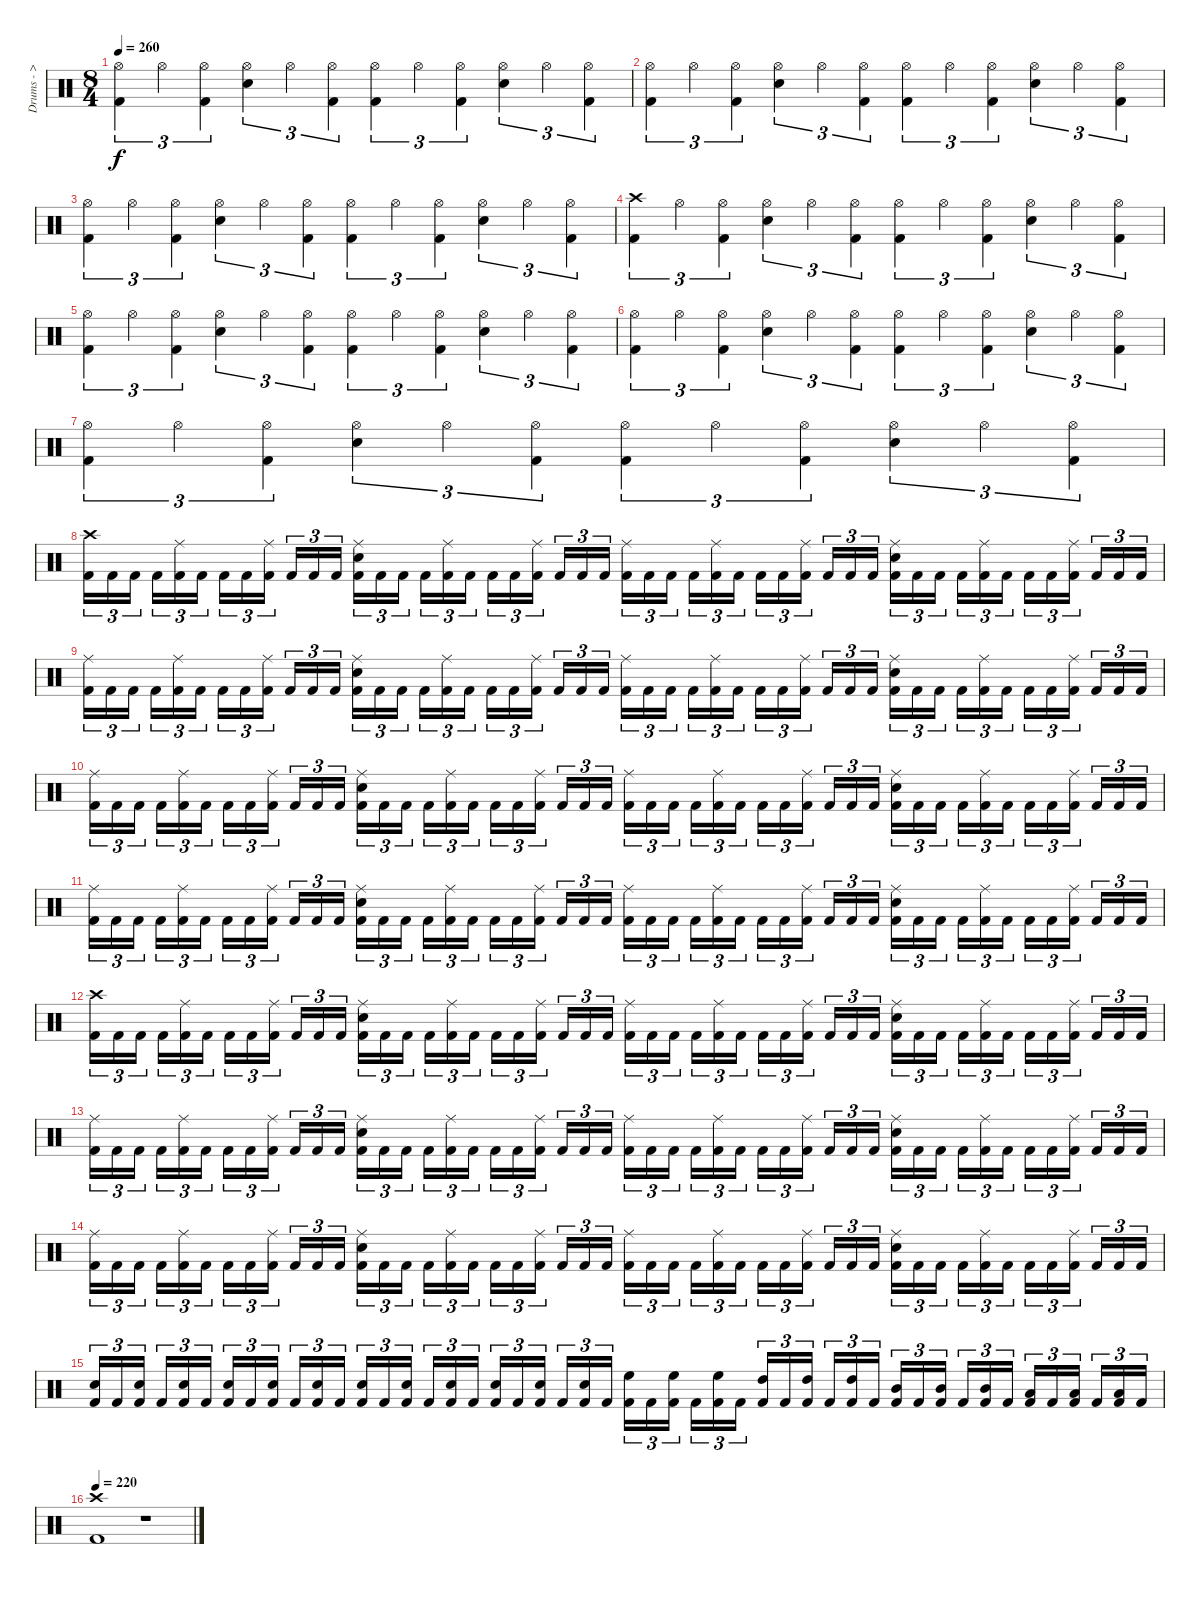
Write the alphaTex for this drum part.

\track ("Drums - > Nicholas" "Drums - > ") {instrument percussion}
\staff {score}
\articulation defaults
\ts (8 4)
\tempo 260
\clef neutral
\ks c
("Kick (hit) 2" "Hi-Hat (open)").4{tu (3 2) dy f} "Hi-Hat (open)".4{tu (3 2)} ("Kick (hit) 2" "Hi-Hat (open)").4{tu (3 2)} ("Snare (hit) 2" "Hi-Hat (open)").4{tu (3 2)} "Hi-Hat (open)".4{tu (3 2)} ("Kick (hit) 2" "Hi-Hat (open)").4{tu (3 2)} ("Kick (hit) 2" "Hi-Hat (open)").4{tu (3 2)} "Hi-Hat (open)".4{tu (3 2)} ("Kick (hit) 2" "Hi-Hat (open)").4{tu (3 2)} ("Snare (hit) 2" "Hi-Hat (open)").4{tu (3 2)} "Hi-Hat (open)".4{tu (3 2)} ("Kick (hit) 2" "Hi-Hat (open)").4{tu (3 2)} |
("Kick (hit) 2" "Hi-Hat (open)").4{tu (3 2)} "Hi-Hat (open)".4{tu (3 2)} ("Kick (hit) 2" "Hi-Hat (open)").4{tu (3 2)} ("Snare (hit) 2" "Hi-Hat (open)").4{tu (3 2)} "Hi-Hat (open)".4{tu (3 2)} ("Kick (hit) 2" "Hi-Hat (open)").4{tu (3 2)} ("Kick (hit) 2" "Hi-Hat (open)").4{tu (3 2)} "Hi-Hat (open)".4{tu (3 2)} ("Kick (hit) 2" "Hi-Hat (open)").4{tu (3 2)} ("Snare (hit) 2" "Hi-Hat (open)").4{tu (3 2)} "Hi-Hat (open)".4{tu (3 2)} ("Kick (hit) 2" "Hi-Hat (open)").4{tu (3 2)} |
("Kick (hit) 2" "Hi-Hat (open)").4{tu (3 2)} "Hi-Hat (open)".4{tu (3 2)} ("Kick (hit) 2" "Hi-Hat (open)").4{tu (3 2)} ("Snare (hit) 2" "Hi-Hat (open)").4{tu (3 2)} "Hi-Hat (open)".4{tu (3 2)} ("Kick (hit) 2" "Hi-Hat (open)").4{tu (3 2)} ("Kick (hit) 2" "Hi-Hat (open)").4{tu (3 2)} "Hi-Hat (open)".4{tu (3 2)} ("Kick (hit) 2" "Hi-Hat (open)").4{tu (3 2)} ("Snare (hit) 2" "Hi-Hat (open)").4{tu (3 2)} "Hi-Hat (open)".4{tu (3 2)} ("Kick (hit) 2" "Hi-Hat (open)").4{tu (3 2)} |
("Kick (hit) 2" "Crash high (hit)").4{tu (3 2)} "Hi-Hat (open)".4{tu (3 2)} ("Kick (hit) 2" "Hi-Hat (open)").4{tu (3 2)} ("Snare (hit) 2" "Hi-Hat (open)").4{tu (3 2)} "Hi-Hat (open)".4{tu (3 2)} ("Kick (hit) 2" "Hi-Hat (open)").4{tu (3 2)} ("Kick (hit) 2" "Hi-Hat (open)").4{tu (3 2)} "Hi-Hat (open)".4{tu (3 2)} ("Kick (hit) 2" "Hi-Hat (open)").4{tu (3 2)} ("Snare (hit) 2" "Hi-Hat (open)").4{tu (3 2)} "Hi-Hat (open)".4{tu (3 2)} ("Kick (hit) 2" "Hi-Hat (open)").4{tu (3 2)} |
("Kick (hit) 2" "Hi-Hat (open)").4{tu (3 2)} "Hi-Hat (open)".4{tu (3 2)} ("Kick (hit) 2" "Hi-Hat (open)").4{tu (3 2)} ("Snare (hit) 2" "Hi-Hat (open)").4{tu (3 2)} "Hi-Hat (open)".4{tu (3 2)} ("Kick (hit) 2" "Hi-Hat (open)").4{tu (3 2)} ("Kick (hit) 2" "Hi-Hat (open)").4{tu (3 2)} "Hi-Hat (open)".4{tu (3 2)} ("Kick (hit) 2" "Hi-Hat (open)").4{tu (3 2)} ("Snare (hit) 2" "Hi-Hat (open)").4{tu (3 2)} "Hi-Hat (open)".4{tu (3 2)} ("Kick (hit) 2" "Hi-Hat (open)").4{tu (3 2)} |
("Kick (hit) 2" "Hi-Hat (open)").4{tu (3 2)} "Hi-Hat (open)".4{tu (3 2)} ("Kick (hit) 2" "Hi-Hat (open)").4{tu (3 2)} ("Snare (hit) 2" "Hi-Hat (open)").4{tu (3 2)} "Hi-Hat (open)".4{tu (3 2)} ("Kick (hit) 2" "Hi-Hat (open)").4{tu (3 2)} ("Kick (hit) 2" "Hi-Hat (open)").4{tu (3 2)} "Hi-Hat (open)".4{tu (3 2)} ("Kick (hit) 2" "Hi-Hat (open)").4{tu (3 2)} ("Snare (hit) 2" "Hi-Hat (open)").4{tu (3 2)} "Hi-Hat (open)".4{tu (3 2)} ("Kick (hit) 2" "Hi-Hat (open)").4{tu (3 2)} |
("Kick (hit) 2" "Hi-Hat (open)").4{tu (3 2)} "Hi-Hat (open)".4{tu (3 2)} ("Kick (hit) 2" "Hi-Hat (open)").4{tu (3 2)} ("Snare (hit) 2" "Hi-Hat (open)").4{tu (3 2)} "Hi-Hat (open)".4{tu (3 2)} ("Kick (hit) 2" "Hi-Hat (open)").4{tu (3 2)} ("Kick (hit) 2" "Hi-Hat (open)").4{tu (3 2)} "Hi-Hat (open)".4{tu (3 2)} ("Kick (hit) 2" "Hi-Hat (open)").4{tu (3 2)} ("Snare (hit) 2" "Hi-Hat (open)").4{tu (3 2)} "Hi-Hat (open)".4{tu (3 2)} ("Kick (hit) 2" "Hi-Hat (open)").4{tu (3 2)} |
("Kick (hit) 2" "Crash high (hit)").16{tu (3 2)} "Kick (hit) 2".16{tu (3 2)} "Kick (hit) 2".16{tu (3 2)} "Kick (hit) 2".16{tu (3 2)} ("Kick (hit) 2" "Ride (middle)").16{tu (3 2)} "Kick (hit) 2".16{tu (3 2)} "Kick (hit) 2".16{tu (3 2)} "Kick (hit) 2".16{tu (3 2)} ("Kick (hit) 2" "Ride (middle)").16{tu (3 2)} "Kick (hit) 2".16{tu (3 2)} "Kick (hit) 2".16{tu (3 2)} "Kick (hit) 2".16{tu (3 2)} ("Kick (hit) 2" "Snare (hit) 2" "Ride (middle)").16{tu (3 2)} "Kick (hit) 2".16{tu (3 2)} "Kick (hit) 2".16{tu (3 2)} "Kick (hit) 2".16{tu (3 2)} ("Kick (hit) 2" "Ride (middle)").16{tu (3 2)} "Kick (hit) 2".16{tu (3 2)} "Kick (hit) 2".16{tu (3 2)} "Kick (hit) 2".16{tu (3 2)} ("Kick (hit) 2" "Ride (middle)").16{tu (3 2)} "Kick (hit) 2".16{tu (3 2)} "Kick (hit) 2".16{tu (3 2)} "Kick (hit) 2".16{tu (3 2)} ("Kick (hit) 2" "Ride (middle)").16{tu (3 2)} "Kick (hit) 2".16{tu (3 2)} "Kick (hit) 2".16{tu (3 2)} "Kick (hit) 2".16{tu (3 2)} ("Kick (hit) 2" "Ride (middle)").16{tu (3 2)} "Kick (hit) 2".16{tu (3 2)} "Kick (hit) 2".16{tu (3 2)} "Kick (hit) 2".16{tu (3 2)} ("Kick (hit) 2" "Ride (middle)").16{tu (3 2)} "Kick (hit) 2".16{tu (3 2)} "Kick (hit) 2".16{tu (3 2)} "Kick (hit) 2".16{tu (3 2)} ("Kick (hit) 2" "Snare (hit) 2" "Ride (middle)").16{tu (3 2)} "Kick (hit) 2".16{tu (3 2)} "Kick (hit) 2".16{tu (3 2)} "Kick (hit) 2".16{tu (3 2)} ("Kick (hit) 2" "Ride (middle)").16{tu (3 2)} "Kick (hit) 2".16{tu (3 2)} "Kick (hit) 2".16{tu (3 2)} "Kick (hit) 2".16{tu (3 2)} ("Kick (hit) 2" "Ride (middle)").16{tu (3 2)} "Kick (hit) 2".16{tu (3 2)} "Kick (hit) 2".16{tu (3 2)} "Kick (hit) 2".16{tu (3 2)} |
("Kick (hit) 2" "Ride (middle)").16{tu (3 2)} "Kick (hit) 2".16{tu (3 2)} "Kick (hit) 2".16{tu (3 2)} "Kick (hit) 2".16{tu (3 2)} ("Kick (hit) 2" "Ride (middle)").16{tu (3 2)} "Kick (hit) 2".16{tu (3 2)} "Kick (hit) 2".16{tu (3 2)} "Kick (hit) 2".16{tu (3 2)} ("Kick (hit) 2" "Ride (middle)").16{tu (3 2)} "Kick (hit) 2".16{tu (3 2)} "Kick (hit) 2".16{tu (3 2)} "Kick (hit) 2".16{tu (3 2)} ("Kick (hit) 2" "Snare (hit) 2" "Ride (middle)").16{tu (3 2)} "Kick (hit) 2".16{tu (3 2)} "Kick (hit) 2".16{tu (3 2)} "Kick (hit) 2".16{tu (3 2)} ("Kick (hit) 2" "Ride (middle)").16{tu (3 2)} "Kick (hit) 2".16{tu (3 2)} "Kick (hit) 2".16{tu (3 2)} "Kick (hit) 2".16{tu (3 2)} ("Kick (hit) 2" "Ride (middle)").16{tu (3 2)} "Kick (hit) 2".16{tu (3 2)} "Kick (hit) 2".16{tu (3 2)} "Kick (hit) 2".16{tu (3 2)} ("Kick (hit) 2" "Ride (middle)").16{tu (3 2)} "Kick (hit) 2".16{tu (3 2)} "Kick (hit) 2".16{tu (3 2)} "Kick (hit) 2".16{tu (3 2)} ("Kick (hit) 2" "Ride (middle)").16{tu (3 2)} "Kick (hit) 2".16{tu (3 2)} "Kick (hit) 2".16{tu (3 2)} "Kick (hit) 2".16{tu (3 2)} ("Kick (hit) 2" "Ride (middle)").16{tu (3 2)} "Kick (hit) 2".16{tu (3 2)} "Kick (hit) 2".16{tu (3 2)} "Kick (hit) 2".16{tu (3 2)} ("Kick (hit) 2" "Snare (hit) 2" "Ride (middle)").16{tu (3 2)} "Kick (hit) 2".16{tu (3 2)} "Kick (hit) 2".16{tu (3 2)} "Kick (hit) 2".16{tu (3 2)} ("Kick (hit) 2" "Ride (middle)").16{tu (3 2)} "Kick (hit) 2".16{tu (3 2)} "Kick (hit) 2".16{tu (3 2)} "Kick (hit) 2".16{tu (3 2)} ("Kick (hit) 2" "Ride (middle)").16{tu (3 2)} "Kick (hit) 2".16{tu (3 2)} "Kick (hit) 2".16{tu (3 2)} "Kick (hit) 2".16{tu (3 2)} |
("Kick (hit) 2" "Ride (middle)").16{tu (3 2)} "Kick (hit) 2".16{tu (3 2)} "Kick (hit) 2".16{tu (3 2)} "Kick (hit) 2".16{tu (3 2)} ("Kick (hit) 2" "Ride (middle)").16{tu (3 2)} "Kick (hit) 2".16{tu (3 2)} "Kick (hit) 2".16{tu (3 2)} "Kick (hit) 2".16{tu (3 2)} ("Kick (hit) 2" "Ride (middle)").16{tu (3 2)} "Kick (hit) 2".16{tu (3 2)} "Kick (hit) 2".16{tu (3 2)} "Kick (hit) 2".16{tu (3 2)} ("Kick (hit) 2" "Snare (hit) 2" "Ride (middle)").16{tu (3 2)} "Kick (hit) 2".16{tu (3 2)} "Kick (hit) 2".16{tu (3 2)} "Kick (hit) 2".16{tu (3 2)} ("Kick (hit) 2" "Ride (middle)").16{tu (3 2)} "Kick (hit) 2".16{tu (3 2)} "Kick (hit) 2".16{tu (3 2)} "Kick (hit) 2".16{tu (3 2)} ("Kick (hit) 2" "Ride (middle)").16{tu (3 2)} "Kick (hit) 2".16{tu (3 2)} "Kick (hit) 2".16{tu (3 2)} "Kick (hit) 2".16{tu (3 2)} ("Kick (hit) 2" "Ride (middle)").16{tu (3 2)} "Kick (hit) 2".16{tu (3 2)} "Kick (hit) 2".16{tu (3 2)} "Kick (hit) 2".16{tu (3 2)} ("Kick (hit) 2" "Ride (middle)").16{tu (3 2)} "Kick (hit) 2".16{tu (3 2)} "Kick (hit) 2".16{tu (3 2)} "Kick (hit) 2".16{tu (3 2)} ("Kick (hit) 2" "Ride (middle)").16{tu (3 2)} "Kick (hit) 2".16{tu (3 2)} "Kick (hit) 2".16{tu (3 2)} "Kick (hit) 2".16{tu (3 2)} ("Kick (hit) 2" "Snare (hit) 2" "Ride (middle)").16{tu (3 2)} "Kick (hit) 2".16{tu (3 2)} "Kick (hit) 2".16{tu (3 2)} "Kick (hit) 2".16{tu (3 2)} ("Kick (hit) 2" "Ride (middle)").16{tu (3 2)} "Kick (hit) 2".16{tu (3 2)} "Kick (hit) 2".16{tu (3 2)} "Kick (hit) 2".16{tu (3 2)} ("Kick (hit) 2" "Ride (middle)").16{tu (3 2)} "Kick (hit) 2".16{tu (3 2)} "Kick (hit) 2".16{tu (3 2)} "Kick (hit) 2".16{tu (3 2)} |
("Kick (hit) 2" "Ride (middle)").16{tu (3 2)} "Kick (hit) 2".16{tu (3 2)} "Kick (hit) 2".16{tu (3 2)} "Kick (hit) 2".16{tu (3 2)} ("Kick (hit) 2" "Ride (middle)").16{tu (3 2)} "Kick (hit) 2".16{tu (3 2)} "Kick (hit) 2".16{tu (3 2)} "Kick (hit) 2".16{tu (3 2)} ("Kick (hit) 2" "Ride (middle)").16{tu (3 2)} "Kick (hit) 2".16{tu (3 2)} "Kick (hit) 2".16{tu (3 2)} "Kick (hit) 2".16{tu (3 2)} ("Kick (hit) 2" "Snare (hit) 2" "Ride (middle)").16{tu (3 2)} "Kick (hit) 2".16{tu (3 2)} "Kick (hit) 2".16{tu (3 2)} "Kick (hit) 2".16{tu (3 2)} ("Kick (hit) 2" "Ride (middle)").16{tu (3 2)} "Kick (hit) 2".16{tu (3 2)} "Kick (hit) 2".16{tu (3 2)} "Kick (hit) 2".16{tu (3 2)} ("Kick (hit) 2" "Ride (middle)").16{tu (3 2)} "Kick (hit) 2".16{tu (3 2)} "Kick (hit) 2".16{tu (3 2)} "Kick (hit) 2".16{tu (3 2)} ("Kick (hit) 2" "Ride (middle)").16{tu (3 2)} "Kick (hit) 2".16{tu (3 2)} "Kick (hit) 2".16{tu (3 2)} "Kick (hit) 2".16{tu (3 2)} ("Kick (hit) 2" "Ride (middle)").16{tu (3 2)} "Kick (hit) 2".16{tu (3 2)} "Kick (hit) 2".16{tu (3 2)} "Kick (hit) 2".16{tu (3 2)} ("Kick (hit) 2" "Ride (middle)").16{tu (3 2)} "Kick (hit) 2".16{tu (3 2)} "Kick (hit) 2".16{tu (3 2)} "Kick (hit) 2".16{tu (3 2)} ("Kick (hit) 2" "Snare (hit) 2" "Ride (middle)").16{tu (3 2)} "Kick (hit) 2".16{tu (3 2)} "Kick (hit) 2".16{tu (3 2)} "Kick (hit) 2".16{tu (3 2)} ("Kick (hit) 2" "Ride (middle)").16{tu (3 2)} "Kick (hit) 2".16{tu (3 2)} "Kick (hit) 2".16{tu (3 2)} "Kick (hit) 2".16{tu (3 2)} ("Kick (hit) 2" "Ride (middle)").16{tu (3 2)} "Kick (hit) 2".16{tu (3 2)} "Kick (hit) 2".16{tu (3 2)} "Kick (hit) 2".16{tu (3 2)} |
("Kick (hit) 2" "Crash high (hit)").16{tu (3 2)} "Kick (hit) 2".16{tu (3 2)} "Kick (hit) 2".16{tu (3 2)} "Kick (hit) 2".16{tu (3 2)} ("Kick (hit) 2" "Ride (middle)").16{tu (3 2)} "Kick (hit) 2".16{tu (3 2)} "Kick (hit) 2".16{tu (3 2)} "Kick (hit) 2".16{tu (3 2)} ("Kick (hit) 2" "Ride (middle)").16{tu (3 2)} "Kick (hit) 2".16{tu (3 2)} "Kick (hit) 2".16{tu (3 2)} "Kick (hit) 2".16{tu (3 2)} ("Kick (hit) 2" "Snare (hit) 2" "Ride (middle)").16{tu (3 2)} "Kick (hit) 2".16{tu (3 2)} "Kick (hit) 2".16{tu (3 2)} "Kick (hit) 2".16{tu (3 2)} ("Kick (hit) 2" "Ride (middle)").16{tu (3 2)} "Kick (hit) 2".16{tu (3 2)} "Kick (hit) 2".16{tu (3 2)} "Kick (hit) 2".16{tu (3 2)} ("Kick (hit) 2" "Ride (middle)").16{tu (3 2)} "Kick (hit) 2".16{tu (3 2)} "Kick (hit) 2".16{tu (3 2)} "Kick (hit) 2".16{tu (3 2)} ("Kick (hit) 2" "Ride (middle)").16{tu (3 2)} "Kick (hit) 2".16{tu (3 2)} "Kick (hit) 2".16{tu (3 2)} "Kick (hit) 2".16{tu (3 2)} ("Kick (hit) 2" "Ride (middle)").16{tu (3 2)} "Kick (hit) 2".16{tu (3 2)} "Kick (hit) 2".16{tu (3 2)} "Kick (hit) 2".16{tu (3 2)} ("Kick (hit) 2" "Ride (middle)").16{tu (3 2)} "Kick (hit) 2".16{tu (3 2)} "Kick (hit) 2".16{tu (3 2)} "Kick (hit) 2".16{tu (3 2)} ("Kick (hit) 2" "Snare (hit) 2" "Ride (middle)").16{tu (3 2)} "Kick (hit) 2".16{tu (3 2)} "Kick (hit) 2".16{tu (3 2)} "Kick (hit) 2".16{tu (3 2)} ("Kick (hit) 2" "Ride (middle)").16{tu (3 2)} "Kick (hit) 2".16{tu (3 2)} "Kick (hit) 2".16{tu (3 2)} "Kick (hit) 2".16{tu (3 2)} ("Kick (hit) 2" "Ride (middle)").16{tu (3 2)} "Kick (hit) 2".16{tu (3 2)} "Kick (hit) 2".16{tu (3 2)} "Kick (hit) 2".16{tu (3 2)} |
("Kick (hit) 2" "Ride (middle)").16{tu (3 2)} "Kick (hit) 2".16{tu (3 2)} "Kick (hit) 2".16{tu (3 2)} "Kick (hit) 2".16{tu (3 2)} ("Kick (hit) 2" "Ride (middle)").16{tu (3 2)} "Kick (hit) 2".16{tu (3 2)} "Kick (hit) 2".16{tu (3 2)} "Kick (hit) 2".16{tu (3 2)} ("Kick (hit) 2" "Ride (middle)").16{tu (3 2)} "Kick (hit) 2".16{tu (3 2)} "Kick (hit) 2".16{tu (3 2)} "Kick (hit) 2".16{tu (3 2)} ("Kick (hit) 2" "Snare (hit) 2" "Ride (middle)").16{tu (3 2)} "Kick (hit) 2".16{tu (3 2)} "Kick (hit) 2".16{tu (3 2)} "Kick (hit) 2".16{tu (3 2)} ("Kick (hit) 2" "Ride (middle)").16{tu (3 2)} "Kick (hit) 2".16{tu (3 2)} "Kick (hit) 2".16{tu (3 2)} "Kick (hit) 2".16{tu (3 2)} ("Kick (hit) 2" "Ride (middle)").16{tu (3 2)} "Kick (hit) 2".16{tu (3 2)} "Kick (hit) 2".16{tu (3 2)} "Kick (hit) 2".16{tu (3 2)} ("Kick (hit) 2" "Ride (middle)").16{tu (3 2)} "Kick (hit) 2".16{tu (3 2)} "Kick (hit) 2".16{tu (3 2)} "Kick (hit) 2".16{tu (3 2)} ("Kick (hit) 2" "Ride (middle)").16{tu (3 2)} "Kick (hit) 2".16{tu (3 2)} "Kick (hit) 2".16{tu (3 2)} "Kick (hit) 2".16{tu (3 2)} ("Kick (hit) 2" "Ride (middle)").16{tu (3 2)} "Kick (hit) 2".16{tu (3 2)} "Kick (hit) 2".16{tu (3 2)} "Kick (hit) 2".16{tu (3 2)} ("Kick (hit) 2" "Snare (hit) 2" "Ride (middle)").16{tu (3 2)} "Kick (hit) 2".16{tu (3 2)} "Kick (hit) 2".16{tu (3 2)} "Kick (hit) 2".16{tu (3 2)} ("Kick (hit) 2" "Ride (middle)").16{tu (3 2)} "Kick (hit) 2".16{tu (3 2)} "Kick (hit) 2".16{tu (3 2)} "Kick (hit) 2".16{tu (3 2)} ("Kick (hit) 2" "Ride (middle)").16{tu (3 2)} "Kick (hit) 2".16{tu (3 2)} "Kick (hit) 2".16{tu (3 2)} "Kick (hit) 2".16{tu (3 2)} |
("Kick (hit) 2" "Ride (middle)").16{tu (3 2)} "Kick (hit) 2".16{tu (3 2)} "Kick (hit) 2".16{tu (3 2)} "Kick (hit) 2".16{tu (3 2)} ("Kick (hit) 2" "Ride (middle)").16{tu (3 2)} "Kick (hit) 2".16{tu (3 2)} "Kick (hit) 2".16{tu (3 2)} "Kick (hit) 2".16{tu (3 2)} ("Kick (hit) 2" "Ride (middle)").16{tu (3 2)} "Kick (hit) 2".16{tu (3 2)} "Kick (hit) 2".16{tu (3 2)} "Kick (hit) 2".16{tu (3 2)} ("Kick (hit) 2" "Snare (hit) 2" "Ride (middle)").16{tu (3 2)} "Kick (hit) 2".16{tu (3 2)} "Kick (hit) 2".16{tu (3 2)} "Kick (hit) 2".16{tu (3 2)} ("Kick (hit) 2" "Ride (middle)").16{tu (3 2)} "Kick (hit) 2".16{tu (3 2)} "Kick (hit) 2".16{tu (3 2)} "Kick (hit) 2".16{tu (3 2)} ("Kick (hit) 2" "Ride (middle)").16{tu (3 2)} "Kick (hit) 2".16{tu (3 2)} "Kick (hit) 2".16{tu (3 2)} "Kick (hit) 2".16{tu (3 2)} ("Kick (hit) 2" "Ride (middle)").16{tu (3 2)} "Kick (hit) 2".16{tu (3 2)} "Kick (hit) 2".16{tu (3 2)} "Kick (hit) 2".16{tu (3 2)} ("Kick (hit) 2" "Ride (middle)").16{tu (3 2)} "Kick (hit) 2".16{tu (3 2)} "Kick (hit) 2".16{tu (3 2)} "Kick (hit) 2".16{tu (3 2)} ("Kick (hit) 2" "Ride (middle)").16{tu (3 2)} "Kick (hit) 2".16{tu (3 2)} "Kick (hit) 2".16{tu (3 2)} "Kick (hit) 2".16{tu (3 2)} ("Kick (hit) 2" "Snare (hit) 2" "Ride (middle)").16{tu (3 2)} "Kick (hit) 2".16{tu (3 2)} "Kick (hit) 2".16{tu (3 2)} "Kick (hit) 2".16{tu (3 2)} ("Kick (hit) 2" "Ride (middle)").16{tu (3 2)} "Kick (hit) 2".16{tu (3 2)} "Kick (hit) 2".16{tu (3 2)} "Kick (hit) 2".16{tu (3 2)} ("Kick (hit) 2" "Ride (middle)").16{tu (3 2)} "Kick (hit) 2".16{tu (3 2)} "Kick (hit) 2".16{tu (3 2)} "Kick (hit) 2".16{tu (3 2)} |
("Kick (hit) 2" "Snare (hit) 2").16{tu (3 2)} "Kick (hit) 2".16{tu (3 2)} ("Kick (hit) 2" "Snare (hit) 2").16{tu (3 2)} "Kick (hit) 2".16{tu (3 2)} ("Kick (hit) 2" "Snare (hit) 2").16{tu (3 2)} "Kick (hit) 2".16{tu (3 2)} ("Kick (hit) 2" "Snare (hit) 2").16{tu (3 2)} "Kick (hit) 2".16{tu (3 2)} ("Kick (hit) 2" "Snare (hit) 2").16{tu (3 2)} "Kick (hit) 2".16{tu (3 2)} ("Kick (hit) 2" "Snare (hit) 2").16{tu (3 2)} "Kick (hit) 2".16{tu (3 2)} ("Kick (hit) 2" "Snare (hit) 2").16{tu (3 2)} "Kick (hit) 2".16{tu (3 2)} ("Kick (hit) 2" "Snare (hit) 2").16{tu (3 2)} "Kick (hit) 2".16{tu (3 2)} ("Kick (hit) 2" "Snare (hit) 2").16{tu (3 2)} "Kick (hit) 2".16{tu (3 2)} ("Kick (hit) 2" "Snare (hit) 2").16{tu (3 2)} "Kick (hit) 2".16{tu (3 2)} ("Kick (hit) 2" "Snare (hit) 2").16{tu (3 2)} "Kick (hit) 2".16{tu (3 2)} ("Kick (hit) 2" "Snare (hit) 2").16{tu (3 2)} "Kick (hit) 2".16{tu (3 2)} ("Kick (hit) 2" "High Floor Tom (hit)").16{tu (3 2)} "Kick (hit) 2".16{tu (3 2)} ("Kick (hit) 2" "High Floor Tom (hit)").16{tu (3 2)} "Kick (hit) 2".16{tu (3 2)} ("Kick (hit) 2" "High Floor Tom (hit)").16{tu (3 2)} "Kick (hit) 2".16{tu (3 2)} ("Kick (hit) 2" "High Tom (hit)").16{tu (3 2)} "Kick (hit) 2".16{tu (3 2)} ("Kick (hit) 2" "High Tom (hit)").16{tu (3 2)} "Kick (hit) 2".16{tu (3 2)} ("Kick (hit) 2" "High Tom (hit)").16{tu (3 2)} "Kick (hit) 2".16{tu (3 2)} ("Kick (hit) 2" "Mid Tom (hit)").16{tu (3 2)} "Kick (hit) 2".16{tu (3 2)} ("Kick (hit) 2" "Mid Tom (hit)").16{tu (3 2)} "Kick (hit) 2".16{tu (3 2)} ("Kick (hit) 2" "Mid Tom (hit)").16{tu (3 2)} "Kick (hit) 2".16{tu (3 2)} ("Kick (hit) 2" "Low Tom (hit)").16{tu (3 2)} "Kick (hit) 2".16{tu (3 2)} ("Kick (hit) 2" "Low Tom (hit)").16{tu (3 2)} "Kick (hit) 2".16{tu (3 2)} ("Kick (hit) 2" "Low Tom (hit)").16{tu (3 2)} "Kick (hit) 2".16{tu (3 2)} |
\tempo 220
("Kick (hit) 2" "Crash high (hit)").1 r.1
